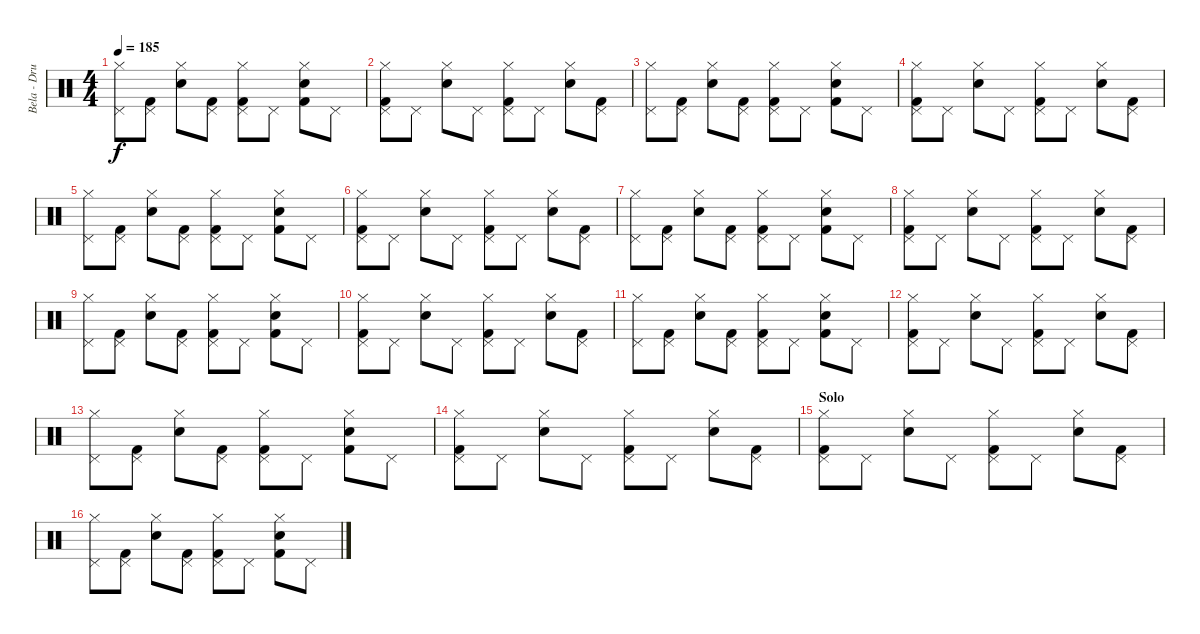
\track ("Bela - Drums" "Bela - Dru") {instrument percussion}
\staff {score}
\articulation defaults
\ts (4 4)
\tempo 185
\clef neutral
\ks c
("Hi-Hat (closed)" "Pedal Hi-Hat (hit)").8{dy f} ("Kick (hit) 2" "Pedal Hi-Hat (hit)").8 ("Hi-Hat (closed)" "Electric Snare (hit)").8 ("Kick (hit) 2" "Pedal Hi-Hat (hit)").8 ("Kick (hit) 2" "Hi-Hat (closed)" "Pedal Hi-Hat (hit)").8 "Pedal Hi-Hat (hit)".8 ("Hi-Hat (closed)" "Kick (hit) 2" "Electric Snare (hit)").8 "Pedal Hi-Hat (hit)".8 |
("Hi-Hat (closed)" "Pedal Hi-Hat (hit)" "Kick (hit) 2").8 "Pedal Hi-Hat (hit)".8 ("Hi-Hat (closed)" "Electric Snare (hit)").8 "Pedal Hi-Hat (hit)".8 ("Hi-Hat (closed)" "Kick (hit) 2" "Pedal Hi-Hat (hit)").8 "Pedal Hi-Hat (hit)".8 ("Hi-Hat (closed)" "Electric Snare (hit)").8 ("Pedal Hi-Hat (hit)" "Kick (hit) 2").8 |
("Hi-Hat (closed)" "Pedal Hi-Hat (hit)").8 ("Kick (hit) 2" "Pedal Hi-Hat (hit)").8 ("Hi-Hat (closed)" "Electric Snare (hit)").8 ("Kick (hit) 2" "Pedal Hi-Hat (hit)").8 ("Kick (hit) 2" "Hi-Hat (closed)" "Pedal Hi-Hat (hit)").8 "Pedal Hi-Hat (hit)".8 ("Hi-Hat (closed)" "Kick (hit) 2" "Electric Snare (hit)").8 "Pedal Hi-Hat (hit)".8 |
("Hi-Hat (closed)" "Pedal Hi-Hat (hit)" "Kick (hit) 2").8 "Pedal Hi-Hat (hit)".8 ("Hi-Hat (closed)" "Electric Snare (hit)").8 "Pedal Hi-Hat (hit)".8 ("Hi-Hat (closed)" "Kick (hit) 2" "Pedal Hi-Hat (hit)").8 "Pedal Hi-Hat (hit)".8 ("Hi-Hat (closed)" "Electric Snare (hit)").8 ("Pedal Hi-Hat (hit)" "Kick (hit) 2").8 |
("Hi-Hat (closed)" "Pedal Hi-Hat (hit)").8 ("Kick (hit) 2" "Pedal Hi-Hat (hit)").8 ("Hi-Hat (closed)" "Electric Snare (hit)").8 ("Kick (hit) 2" "Pedal Hi-Hat (hit)").8 ("Kick (hit) 2" "Hi-Hat (closed)" "Pedal Hi-Hat (hit)").8 "Pedal Hi-Hat (hit)".8 ("Hi-Hat (closed)" "Kick (hit) 2" "Electric Snare (hit)").8 "Pedal Hi-Hat (hit)".8 |
("Hi-Hat (closed)" "Pedal Hi-Hat (hit)" "Kick (hit) 2").8 "Pedal Hi-Hat (hit)".8 ("Hi-Hat (closed)" "Electric Snare (hit)").8 "Pedal Hi-Hat (hit)".8 ("Hi-Hat (closed)" "Kick (hit) 2" "Pedal Hi-Hat (hit)").8 "Pedal Hi-Hat (hit)".8 ("Hi-Hat (closed)" "Electric Snare (hit)").8 ("Pedal Hi-Hat (hit)" "Kick (hit) 2").8 |
("Hi-Hat (closed)" "Pedal Hi-Hat (hit)").8 ("Kick (hit) 2" "Pedal Hi-Hat (hit)").8 ("Hi-Hat (closed)" "Electric Snare (hit)").8 ("Kick (hit) 2" "Pedal Hi-Hat (hit)").8 ("Kick (hit) 2" "Hi-Hat (closed)" "Pedal Hi-Hat (hit)").8 "Pedal Hi-Hat (hit)".8 ("Hi-Hat (closed)" "Kick (hit) 2" "Electric Snare (hit)").8 "Pedal Hi-Hat (hit)".8 |
("Hi-Hat (closed)" "Pedal Hi-Hat (hit)" "Kick (hit) 2").8 "Pedal Hi-Hat (hit)".8 ("Hi-Hat (closed)" "Electric Snare (hit)").8 "Pedal Hi-Hat (hit)".8 ("Hi-Hat (closed)" "Kick (hit) 2" "Pedal Hi-Hat (hit)").8 "Pedal Hi-Hat (hit)".8 ("Hi-Hat (closed)" "Electric Snare (hit)").8 ("Pedal Hi-Hat (hit)" "Kick (hit) 2").8 |
("Hi-Hat (closed)" "Pedal Hi-Hat (hit)").8 ("Kick (hit) 2" "Pedal Hi-Hat (hit)").8 ("Hi-Hat (closed)" "Electric Snare (hit)").8 ("Kick (hit) 2" "Pedal Hi-Hat (hit)").8 ("Kick (hit) 2" "Hi-Hat (closed)" "Pedal Hi-Hat (hit)").8 "Pedal Hi-Hat (hit)".8 ("Hi-Hat (closed)" "Kick (hit) 2" "Electric Snare (hit)").8 "Pedal Hi-Hat (hit)".8 |
("Hi-Hat (closed)" "Pedal Hi-Hat (hit)" "Kick (hit) 2").8 "Pedal Hi-Hat (hit)".8 ("Hi-Hat (closed)" "Electric Snare (hit)").8 "Pedal Hi-Hat (hit)".8 ("Hi-Hat (closed)" "Kick (hit) 2" "Pedal Hi-Hat (hit)").8 "Pedal Hi-Hat (hit)".8 ("Hi-Hat (closed)" "Electric Snare (hit)").8 ("Pedal Hi-Hat (hit)" "Kick (hit) 2").8 |
("Hi-Hat (closed)" "Pedal Hi-Hat (hit)").8 ("Kick (hit) 2" "Pedal Hi-Hat (hit)").8 ("Hi-Hat (closed)" "Electric Snare (hit)").8 ("Kick (hit) 2" "Pedal Hi-Hat (hit)").8 ("Kick (hit) 2" "Hi-Hat (closed)" "Pedal Hi-Hat (hit)").8 "Pedal Hi-Hat (hit)".8 ("Hi-Hat (closed)" "Kick (hit) 2" "Electric Snare (hit)").8 "Pedal Hi-Hat (hit)".8 |
("Hi-Hat (closed)" "Pedal Hi-Hat (hit)" "Kick (hit) 2").8 "Pedal Hi-Hat (hit)".8 ("Hi-Hat (closed)" "Electric Snare (hit)").8 "Pedal Hi-Hat (hit)".8 ("Hi-Hat (closed)" "Kick (hit) 2" "Pedal Hi-Hat (hit)").8 "Pedal Hi-Hat (hit)".8 ("Hi-Hat (closed)" "Electric Snare (hit)").8 ("Pedal Hi-Hat (hit)" "Kick (hit) 2").8 |
("Hi-Hat (closed)" "Pedal Hi-Hat (hit)").8 ("Kick (hit) 2" "Pedal Hi-Hat (hit)").8 ("Hi-Hat (closed)" "Electric Snare (hit)").8 ("Kick (hit) 2" "Pedal Hi-Hat (hit)").8 ("Kick (hit) 2" "Hi-Hat (closed)" "Pedal Hi-Hat (hit)").8 "Pedal Hi-Hat (hit)".8 ("Hi-Hat (closed)" "Kick (hit) 2" "Electric Snare (hit)").8 "Pedal Hi-Hat (hit)".8 |
("Hi-Hat (closed)" "Pedal Hi-Hat (hit)" "Kick (hit) 2").8 "Pedal Hi-Hat (hit)".8 ("Hi-Hat (closed)" "Electric Snare (hit)").8 "Pedal Hi-Hat (hit)".8 ("Hi-Hat (closed)" "Kick (hit) 2" "Pedal Hi-Hat (hit)").8 "Pedal Hi-Hat (hit)".8 ("Hi-Hat (closed)" "Electric Snare (hit)").8 ("Pedal Hi-Hat (hit)" "Kick (hit) 2").8 |
\section ("" "Solo")
("Hi-Hat (closed)" "Pedal Hi-Hat (hit)" "Kick (hit) 2").8 "Pedal Hi-Hat (hit)".8 ("Hi-Hat (closed)" "Electric Snare (hit)").8 "Pedal Hi-Hat (hit)".8 ("Hi-Hat (closed)" "Kick (hit) 2" "Pedal Hi-Hat (hit)").8 "Pedal Hi-Hat (hit)".8 ("Hi-Hat (closed)" "Electric Snare (hit)").8 ("Pedal Hi-Hat (hit)" "Kick (hit) 2").8 |
("Hi-Hat (closed)" "Pedal Hi-Hat (hit)").8 ("Kick (hit) 2" "Pedal Hi-Hat (hit)").8 ("Hi-Hat (closed)" "Electric Snare (hit)").8 ("Kick (hit) 2" "Pedal Hi-Hat (hit)").8 ("Kick (hit) 2" "Hi-Hat (closed)" "Pedal Hi-Hat (hit)").8 "Pedal Hi-Hat (hit)".8 ("Hi-Hat (closed)" "Kick (hit) 2" "Electric Snare (hit)").8 "Pedal Hi-Hat (hit)".8
